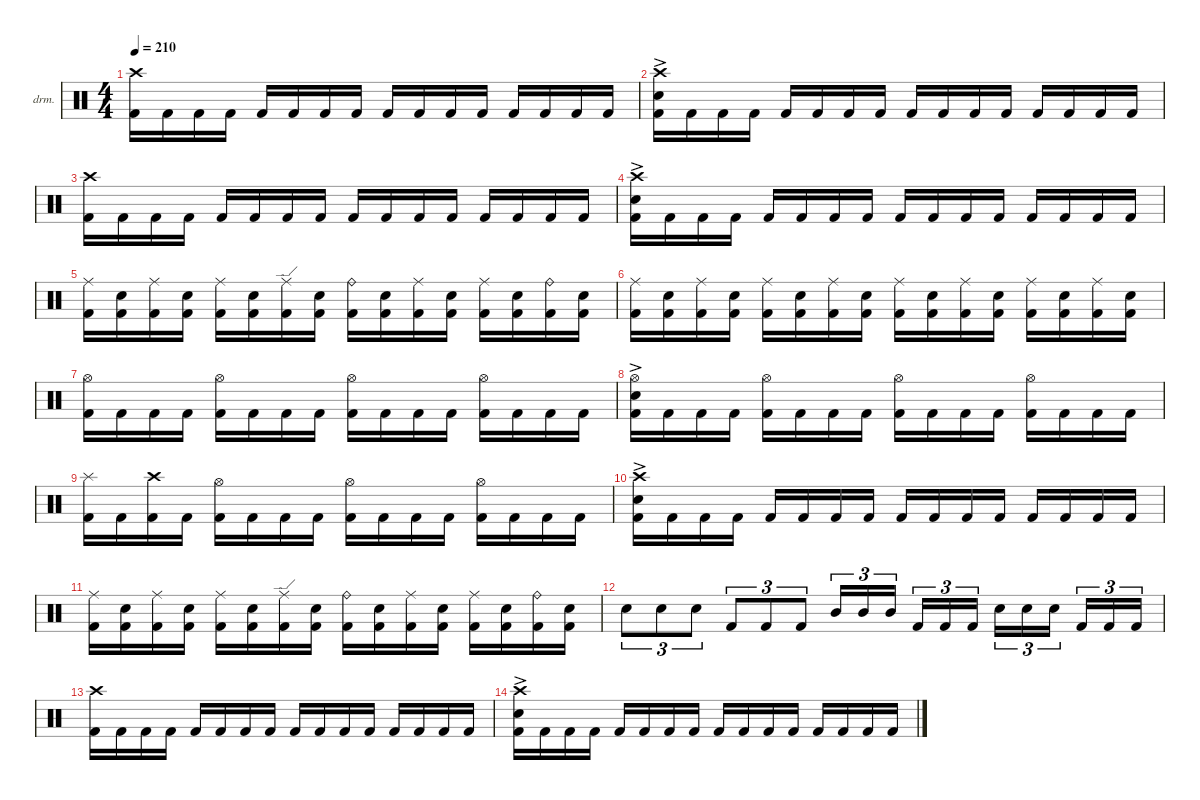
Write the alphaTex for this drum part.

\defaultSystemsLayout 4
\hideDynamics
\bracketExtendMode nobrackets
\firstSystemTrackNameOrientation horizontal
\otherSystemsTrackNameOrientation horizontal
\track ("Drumkit" "drm.") {instrument percussion}
\staff {score}
\articulation defaults
\ts (4 4)
\tempo 210
\clef neutral
\ks c
("Kick (hit) 2" "Crash high (hit)").16{dy f beam Down} "Kick (hit) 2".16{beam Down} "Kick (hit) 2".16{beam Down} "Kick (hit) 2".16{beam Down} "Kick (hit) 2".16{beam Up} "Kick (hit) 2".16{beam Up} "Kick (hit) 2".16{beam Up} "Kick (hit) 2".16{beam Up} "Kick (hit) 2".16{beam Up} "Kick (hit) 2".16{beam Up} "Kick (hit) 2".16{beam Up} "Kick (hit) 2".16{beam Up} "Kick (hit) 2".16{beam Up} "Kick (hit) 2".16{beam Up} "Kick (hit) 2".16{beam Up} "Kick (hit) 2".16{beam Up} |
("Kick (hit) 2" "Crash high (hit)" "Snare (hit) 2"{ac}).16{beam Down} "Kick (hit) 2".16{beam Down} "Kick (hit) 2".16{beam Down} "Kick (hit) 2".16{beam Down} "Kick (hit) 2".16{beam Up} "Kick (hit) 2".16{beam Up} "Kick (hit) 2".16{beam Up} "Kick (hit) 2".16{beam Up} "Kick (hit) 2".16{beam Up} "Kick (hit) 2".16{beam Up} "Kick (hit) 2".16{beam Up} "Kick (hit) 2".16{beam Up} "Kick (hit) 2".16{beam Up} "Kick (hit) 2".16{beam Up} "Kick (hit) 2".16{beam Up} "Kick (hit) 2".16{beam Up} |
("Kick (hit) 2" "Crash high (hit)").16{beam Down} "Kick (hit) 2".16{beam Down} "Kick (hit) 2".16{beam Down} "Kick (hit) 2".16{beam Down} "Kick (hit) 2".16{beam Up} "Kick (hit) 2".16{beam Up} "Kick (hit) 2".16{beam Up} "Kick (hit) 2".16{beam Up} "Kick (hit) 2".16{beam Up} "Kick (hit) 2".16{beam Up} "Kick (hit) 2".16{beam Up} "Kick (hit) 2".16{beam Up} "Kick (hit) 2".16{beam Up} "Kick (hit) 2".16{beam Up} "Kick (hit) 2".16{beam Up} "Kick (hit) 2".16{beam Up} |
("Kick (hit) 2" "Crash high (hit)" "Snare (hit) 2"{ac}).16{beam Down} "Kick (hit) 2".16{beam Down} "Kick (hit) 2".16{beam Down} "Kick (hit) 2".16{beam Down} "Kick (hit) 2".16{beam Up} "Kick (hit) 2".16{beam Up} "Kick (hit) 2".16{beam Up} "Kick (hit) 2".16{beam Up} "Kick (hit) 2".16{beam Up} "Kick (hit) 2".16{beam Up} "Kick (hit) 2".16{beam Up} "Kick (hit) 2".16{beam Up} "Kick (hit) 2".16{beam Up} "Kick (hit) 2".16{beam Up} "Kick (hit) 2".16{beam Up} "Kick (hit) 2".16{beam Up} |
("Kick (hit) 2" "Ride (middle)").16{beam Down} ("Kick (hit) 2" "Snare (hit) 2").16{beam Down} ("Kick (hit) 2" "Ride (middle)").16{beam Down} ("Kick (hit) 2" "Snare (hit) 2").16{beam Down} ("Kick (hit) 2" "Ride (middle)").16{beam Down} ("Kick (hit) 2" "Snare (hit) 2").16{beam Down} ("Kick (hit) 2" "Ride (edge)").16{beam Down} ("Kick (hit) 2" "Snare (hit) 2").16{beam Down} ("Kick (hit) 2" "Ride (bell)").16{beam Down} ("Kick (hit) 2" "Snare (hit) 2").16{beam Down} ("Kick (hit) 2" "Ride (middle)").16{beam Down} ("Kick (hit) 2" "Snare (hit) 2").16{beam Down} ("Kick (hit) 2" "Ride (middle)").16{beam Down} ("Kick (hit) 2" "Snare (hit) 2").16{beam Down} ("Kick (hit) 2" "Ride (bell)").16{beam Down} ("Kick (hit) 2" "Snare (hit) 2").16{beam Down} |
("Kick (hit) 2" "Ride (middle)").16{beam Down} ("Kick (hit) 2" "Snare (hit) 2").16{beam Down} ("Kick (hit) 2" "Ride (middle)").16{beam Down} ("Kick (hit) 2" "Snare (hit) 2").16{beam Down} ("Kick (hit) 2" "Ride (middle)").16{beam Down} ("Kick (hit) 2" "Snare (hit) 2").16{beam Down} ("Kick (hit) 2" "Ride (middle)").16{beam Down} ("Kick (hit) 2" "Snare (hit) 2").16{beam Down} ("Kick (hit) 2" "Ride (middle)").16{beam Down} ("Kick (hit) 2" "Snare (hit) 2").16{beam Down} ("Kick (hit) 2" "Ride (middle)").16{beam Down} ("Kick (hit) 2" "Snare (hit) 2").16{beam Down} ("Kick (hit) 2" "Ride (middle)").16{beam Down} ("Kick (hit) 2" "Snare (hit) 2").16{beam Down} ("Kick (hit) 2" "Ride (middle)").16{beam Down} ("Kick (hit) 2" "Snare (hit) 2").16{beam Down} |
("Kick (hit) 2" "Hi-Hat (open)").16{beam Down} "Kick (hit) 2".16{beam Down} "Kick (hit) 2".16{beam Down} "Kick (hit) 2".16{beam Down} ("Kick (hit) 2" "Hi-Hat (open)").16{beam Down} "Kick (hit) 2".16{beam Down} "Kick (hit) 2".16{beam Down} "Kick (hit) 2".16{beam Down} ("Kick (hit) 2" "Hi-Hat (open)").16{beam Down} "Kick (hit) 2".16{beam Down} "Kick (hit) 2".16{beam Down} "Kick (hit) 2".16{beam Down} ("Kick (hit) 2" "Hi-Hat (open)").16{beam Down} "Kick (hit) 2".16{beam Down} "Kick (hit) 2".16{beam Down} "Kick (hit) 2".16{beam Down} |
("Kick (hit) 2" "Snare (hit) 2"{ac} "Hi-Hat (open)").16{beam Down} "Kick (hit) 2".16{beam Down} "Kick (hit) 2".16{beam Down} "Kick (hit) 2".16{beam Down} ("Kick (hit) 2" "Hi-Hat (open)").16{beam Down} "Kick (hit) 2".16{beam Down} "Kick (hit) 2".16{beam Down} "Kick (hit) 2".16{beam Down} ("Kick (hit) 2" "Hi-Hat (open)").16{beam Down} "Kick (hit) 2".16{beam Down} "Kick (hit) 2".16{beam Down} "Kick (hit) 2".16{beam Down} ("Kick (hit) 2" "Hi-Hat (open)").16{beam Down} "Kick (hit) 2".16{beam Down} "Kick (hit) 2".16{beam Down} "Kick (hit) 2".16{beam Down} |
("Kick (hit) 2" "Splash (hit)").16{beam Down} "Kick (hit) 2".16{beam Down} ("Kick (hit) 2" "Crash high (hit)").16{beam Down} "Kick (hit) 2".16{beam Down} ("Kick (hit) 2" "Hi-Hat (open)").16{beam Down} "Kick (hit) 2".16{beam Down} "Kick (hit) 2".16{beam Down} "Kick (hit) 2".16{beam Down} ("Kick (hit) 2" "Hi-Hat (open)").16{beam Down} "Kick (hit) 2".16{beam Down} "Kick (hit) 2".16{beam Down} "Kick (hit) 2".16{beam Down} ("Kick (hit) 2" "Hi-Hat (open)").16{beam Down} "Kick (hit) 2".16{beam Down} "Kick (hit) 2".16{beam Down} "Kick (hit) 2".16{beam Down} |
("Kick (hit) 2" "Crash high (hit)" "Snare (hit) 2"{ac}).16{beam Down} "Kick (hit) 2".16{beam Down} "Kick (hit) 2".16{beam Down} "Kick (hit) 2".16{beam Down} "Kick (hit) 2".16{beam Up} "Kick (hit) 2".16{beam Up} "Kick (hit) 2".16{beam Up} "Kick (hit) 2".16{beam Up} "Kick (hit) 2".16{beam Up} "Kick (hit) 2".16{beam Up} "Kick (hit) 2".16{beam Up} "Kick (hit) 2".16{beam Up} "Kick (hit) 2".16{beam Up} "Kick (hit) 2".16{beam Up} "Kick (hit) 2".16{beam Up} "Kick (hit) 2".16{beam Up} |
("Kick (hit) 2" "Ride (middle)").16{beam Down} ("Kick (hit) 2" "Snare (hit) 2").16{beam Down} ("Kick (hit) 2" "Ride (middle)").16{beam Down} ("Kick (hit) 2" "Snare (hit) 2").16{beam Down} ("Kick (hit) 2" "Ride (middle)").16{beam Down} ("Kick (hit) 2" "Snare (hit) 2").16{beam Down} ("Kick (hit) 2" "Ride (edge)").16{beam Down} ("Kick (hit) 2" "Snare (hit) 2").16{beam Down} ("Kick (hit) 2" "Ride (bell)").16{beam Down} ("Kick (hit) 2" "Snare (hit) 2").16{beam Down} ("Kick (hit) 2" "Ride (middle)").16{beam Down} ("Kick (hit) 2" "Snare (hit) 2").16{beam Down} ("Kick (hit) 2" "Ride (middle)").16{beam Down} ("Kick (hit) 2" "Snare (hit) 2").16{beam Down} ("Kick (hit) 2" "Ride (bell)").16{beam Down} ("Kick (hit) 2" "Snare (hit) 2").16{beam Down} |
"Snare (hit) 2".8{tu (3 2) beam Down} "Snare (hit) 2".8{tu (3 2) beam Down} "Snare (hit) 2".8{tu (3 2) beam Down} "Kick (hit) 2".8{tu (3 2) beam Up} "Kick (hit) 2".8{tu (3 2) beam Up} "Kick (hit) 2".8{tu (3 2) beam Up} "Mid Tom (hit)".16{tu (3 2) beam Up} "Mid Tom (hit)".16{tu (3 2) beam Up} "Mid Tom (hit)".16{tu (3 2) beam Up} "Kick (hit) 2".16{tu (3 2) beam Up} "Kick (hit) 2".16{tu (3 2) beam Up} "Kick (hit) 2".16{tu (3 2) beam Up} "Snare (hit) 2".16{tu (3 2) beam Down} "Snare (hit) 2".16{tu (3 2) beam Down} "Snare (hit) 2".16{tu (3 2) beam Down} "Kick (hit) 2".16{tu (3 2) beam Up} "Kick (hit) 2".16{tu (3 2) beam Up} "Kick (hit) 2".16{tu (3 2) beam Up} |
("Kick (hit) 2" "Crash high (hit)").16{beam Down} "Kick (hit) 2".16{beam Down} "Kick (hit) 2".16{beam Down} "Kick (hit) 2".16{beam Down} "Kick (hit) 2".16{beam Up} "Kick (hit) 2".16{beam Up} "Kick (hit) 2".16{beam Up} "Kick (hit) 2".16{beam Up} "Kick (hit) 2".16{beam Up} "Kick (hit) 2".16{beam Up} "Kick (hit) 2".16{beam Up} "Kick (hit) 2".16{beam Up} "Kick (hit) 2".16{beam Up} "Kick (hit) 2".16{beam Up} "Kick (hit) 2".16{beam Up} "Kick (hit) 2".16{beam Up} |
("Kick (hit) 2" "Crash high (hit)" "Snare (hit) 2"{ac}).16{beam Down} "Kick (hit) 2".16{beam Down} "Kick (hit) 2".16{beam Down} "Kick (hit) 2".16{beam Down} "Kick (hit) 2".16{beam Up} "Kick (hit) 2".16{beam Up} "Kick (hit) 2".16{beam Up} "Kick (hit) 2".16{beam Up} "Kick (hit) 2".16{beam Up} "Kick (hit) 2".16{beam Up} "Kick (hit) 2".16{beam Up} "Kick (hit) 2".16{beam Up} "Kick (hit) 2".16{beam Up} "Kick (hit) 2".16{beam Up} "Kick (hit) 2".16{beam Up} "Kick (hit) 2".16{beam Up}
